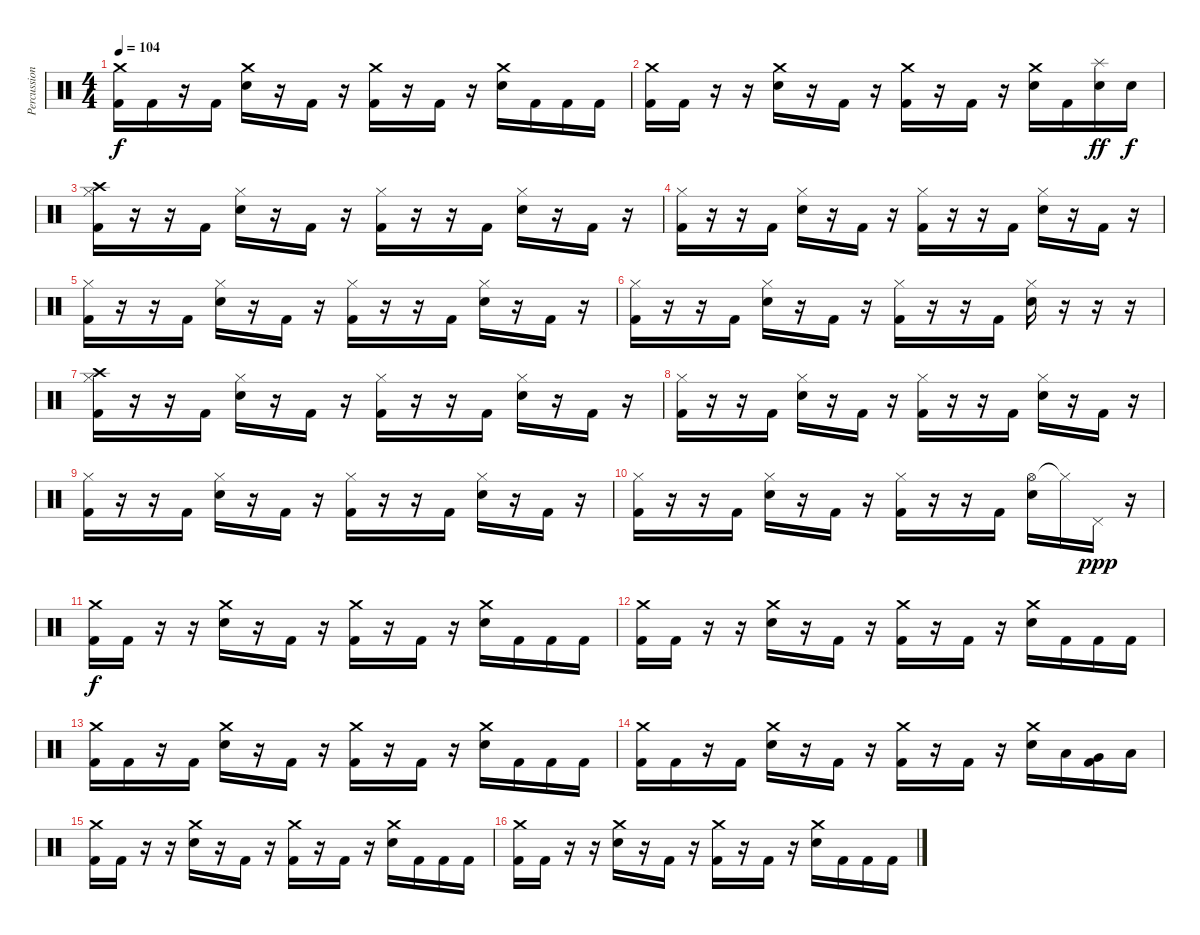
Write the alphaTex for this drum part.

\track ("Percussion" "Percussion") {instrument percussion}
\staff {score}
\articulation defaults
\ts (4 4)
\tempo 104
\clef neutral
\ks c
("Crash medium (hit)" "Kick (hit) 2").16{dy f} "Kick (hit) 2".16 r.16 "Kick (hit) 2".16 ("Crash medium (hit)" "Electric Snare (hit)").16 r.16 "Kick (hit) 2".16 r.16 ("Crash medium (hit)" "Kick (hit) 2").16 r.16 "Kick (hit) 2".16 r.16 ("Crash medium (hit)" "Electric Snare (hit)").16 "Kick (hit) 2".16 "Kick (hit) 2".16 "Kick (hit) 2".16 |
("Crash medium (hit)" "Kick (hit) 2").16 "Kick (hit) 2".16 r.16 r.16 ("Crash medium (hit)" "Electric Snare (hit)").16 r.16 "Kick (hit) 2".16 r.16 ("Crash medium (hit)" "Kick (hit) 2").16 r.16 "Kick (hit) 2".16 r.16 ("Crash medium (hit)" "Electric Snare (hit)").16 "Kick (hit) 2".16 ("Splash (hit)" "Electric Snare (hit)").16{dy ff} "Electric Snare (hit)".16{dy f} |
("Crash high (hit)" "Hi-Hat (closed)" "Kick (hit) 2").16 r.16 r.16 "Kick (hit) 2".16 ("Hi-Hat (closed)" "Electric Snare (hit)").16 r.16 "Kick (hit) 2".16 r.16 ("Hi-Hat (closed)" "Kick (hit) 2").16 r.16 r.16 "Kick (hit) 2".16 ("Hi-Hat (closed)" "Electric Snare (hit)").16 r.16 "Kick (hit) 2".16 r.16 |
("Hi-Hat (closed)" "Kick (hit) 2").16 r.16 r.16 "Kick (hit) 2".16 ("Hi-Hat (closed)" "Electric Snare (hit)").16 r.16 "Kick (hit) 2".16 r.16 ("Hi-Hat (closed)" "Kick (hit) 2").16 r.16 r.16 "Kick (hit) 2".16 ("Hi-Hat (closed)" "Electric Snare (hit)").16 r.16 "Kick (hit) 2".16 r.16 |
("Hi-Hat (closed)" "Kick (hit) 2").16 r.16 r.16 "Kick (hit) 2".16 ("Hi-Hat (closed)" "Electric Snare (hit)").16 r.16 "Kick (hit) 2".16 r.16 ("Hi-Hat (closed)" "Kick (hit) 2").16 r.16 r.16 "Kick (hit) 2".16 ("Hi-Hat (closed)" "Electric Snare (hit)").16 r.16 "Kick (hit) 2".16 r.16 |
("Hi-Hat (closed)" "Kick (hit) 2").16 r.16 r.16 "Kick (hit) 2".16 ("Hi-Hat (closed)" "Electric Snare (hit)").16 r.16 "Kick (hit) 2".16 r.16 ("Hi-Hat (closed)" "Kick (hit) 2").16 r.16 r.16 "Kick (hit) 2".16 ("Hi-Hat (closed)" "Electric Snare (hit)").16 r.16 r.16 r.16 |
("Crash high (hit)" "Hi-Hat (closed)" "Kick (hit) 2").16 r.16 r.16 "Kick (hit) 2".16 ("Hi-Hat (closed)" "Electric Snare (hit)").16 r.16 "Kick (hit) 2".16 r.16 ("Hi-Hat (closed)" "Kick (hit) 2").16 r.16 r.16 "Kick (hit) 2".16 ("Hi-Hat (closed)" "Electric Snare (hit)").16 r.16 "Kick (hit) 2".16 r.16 |
("Hi-Hat (closed)" "Kick (hit) 2").16 r.16 r.16 "Kick (hit) 2".16 ("Hi-Hat (closed)" "Electric Snare (hit)").16 r.16 "Kick (hit) 2".16 r.16 ("Hi-Hat (closed)" "Kick (hit) 2").16 r.16 r.16 "Kick (hit) 2".16 ("Hi-Hat (closed)" "Electric Snare (hit)").16 r.16 "Kick (hit) 2".16 r.16 |
("Hi-Hat (closed)" "Kick (hit) 2").16 r.16 r.16 "Kick (hit) 2".16 ("Hi-Hat (closed)" "Electric Snare (hit)").16 r.16 "Kick (hit) 2".16 r.16 ("Hi-Hat (closed)" "Kick (hit) 2").16 r.16 r.16 "Kick (hit) 2".16 ("Hi-Hat (closed)" "Electric Snare (hit)").16 r.16 "Kick (hit) 2".16 r.16 |
("Hi-Hat (closed)" "Kick (hit) 2").16 r.16 r.16 "Kick (hit) 2".16 ("Hi-Hat (closed)" "Electric Snare (hit)").16 r.16 "Kick (hit) 2".16 r.16 ("Hi-Hat (closed)" "Kick (hit) 2").16 r.16 r.16 "Kick (hit) 2".16 ("Hi-Hat (open)" "Electric Snare (hit)").16 "Hi-Hat (closed)"{t}.16 "Pedal Hi-Hat (hit)".16{dy ppp} r.16 |
("Crash medium (hit)" "Kick (hit) 2").16{dy f} "Kick (hit) 2".16 r.16 r.16 ("Crash medium (hit)" "Electric Snare (hit)").16 r.16 "Kick (hit) 2".16 r.16 ("Crash medium (hit)" "Kick (hit) 2").16 r.16 "Kick (hit) 2".16 r.16 ("Crash medium (hit)" "Electric Snare (hit)").16 "Kick (hit) 2".16 "Kick (hit) 2".16 "Kick (hit) 2".16 |
("Crash medium (hit)" "Kick (hit) 2").16 "Kick (hit) 2".16 r.16 r.16 ("Crash medium (hit)" "Electric Snare (hit)").16 r.16 "Kick (hit) 2".16 r.16 ("Crash medium (hit)" "Kick (hit) 2").16 r.16 "Kick (hit) 2".16 r.16 ("Crash medium (hit)" "Electric Snare (hit)").16 "Kick (hit) 2".16 "Kick (hit) 2".16 "Kick (hit) 2".16 |
("Crash medium (hit)" "Kick (hit) 2").16 "Kick (hit) 2".16 r.16 "Kick (hit) 2".16 ("Crash medium (hit)" "Electric Snare (hit)").16 r.16 "Kick (hit) 2".16 r.16 ("Crash medium (hit)" "Kick (hit) 2").16 r.16 "Kick (hit) 2".16 r.16 ("Crash medium (hit)" "Electric Snare (hit)").16 "Kick (hit) 2".16 "Kick (hit) 2".16 "Kick (hit) 2".16 |
("Crash medium (hit)" "Kick (hit) 2").16 "Kick (hit) 2".16 r.16 "Kick (hit) 2".16 ("Crash medium (hit)" "Electric Snare (hit)").16 r.16 "Kick (hit) 2".16 r.16 ("Crash medium (hit)" "Kick (hit) 2").16 r.16 "Kick (hit) 2".16 r.16 ("Crash medium (hit)" "Electric Snare (hit)").16 "Low Tom (hit)".16 ("Very Low Tom (hit)" "Kick (hit) 2").16 "Low Floor Tom (hit)".16 |
("Crash medium (hit)" "Kick (hit) 2").16 "Kick (hit) 2".16 r.16 r.16 ("Crash medium (hit)" "Electric Snare (hit)").16 r.16 "Kick (hit) 2".16 r.16 ("Crash medium (hit)" "Kick (hit) 2").16 r.16 "Kick (hit) 2".16 r.16 ("Crash medium (hit)" "Electric Snare (hit)").16 "Kick (hit) 2".16 "Kick (hit) 2".16 "Kick (hit) 2".16 |
("Crash medium (hit)" "Kick (hit) 2").16 "Kick (hit) 2".16 r.16 r.16 ("Crash medium (hit)" "Electric Snare (hit)").16 r.16 "Kick (hit) 2".16 r.16 ("Crash medium (hit)" "Kick (hit) 2").16 r.16 "Kick (hit) 2".16 r.16 ("Crash medium (hit)" "Electric Snare (hit)").16 "Kick (hit) 2".16 "Kick (hit) 2".16 "Kick (hit) 2".16
